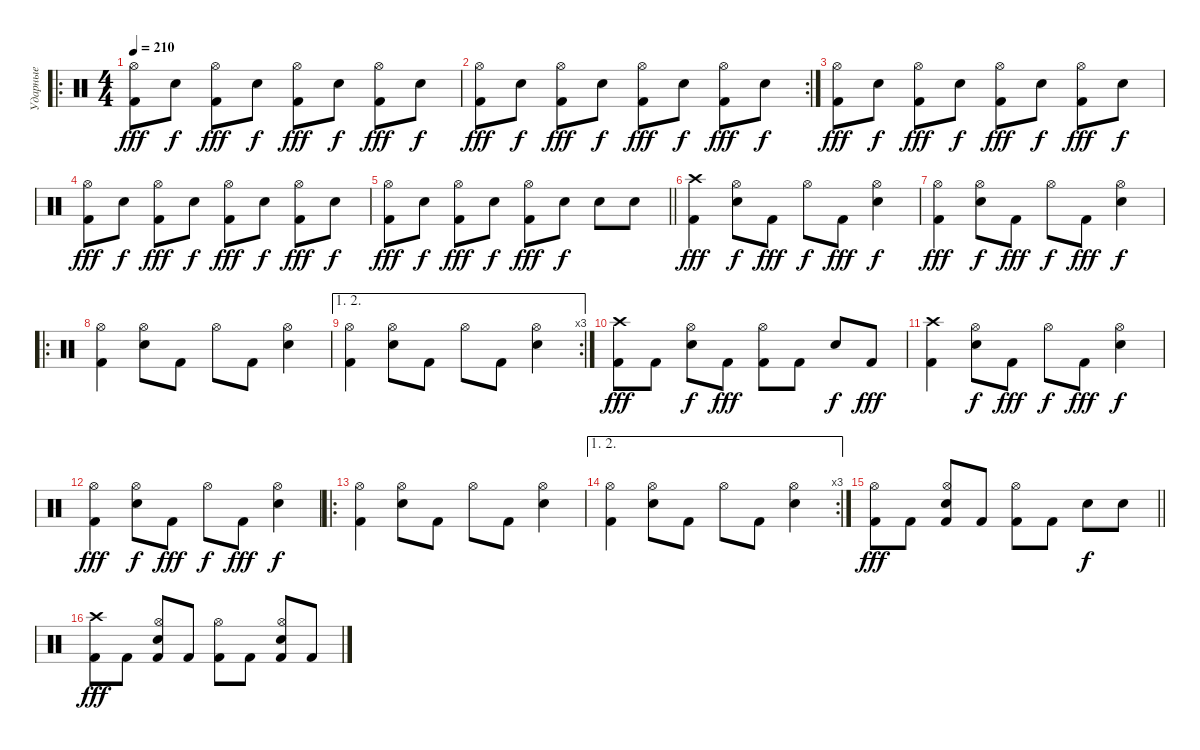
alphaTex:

\track ("Ударные" "Ударные") {instrument percussion}
\staff {score}
\articulation defaults
\ro
\ts (4 4)
\tempo 210
\clef neutral
\ks c
("Kick (hit) 2" "Hi-Hat (open)").8{dy fff} "Snare (hit) 2".8{dy f} ("Kick (hit) 2" "Hi-Hat (open)").8{dy fff} "Snare (hit) 2".8{dy f} ("Kick (hit) 2" "Hi-Hat (open)").8{dy fff} "Snare (hit) 2".8{dy f} ("Kick (hit) 2" "Hi-Hat (open)").8{dy fff} "Snare (hit) 2".8{dy f} |
\rc 2
("Kick (hit) 2" "Hi-Hat (open)").8{dy fff} "Snare (hit) 2".8{dy f} ("Kick (hit) 2" "Hi-Hat (open)").8{dy fff} "Snare (hit) 2".8{dy f} ("Kick (hit) 2" "Hi-Hat (open)").8{dy fff} "Snare (hit) 2".8{dy f} ("Kick (hit) 2" "Hi-Hat (open)").8{dy fff} "Snare (hit) 2".8{dy f} |
("Kick (hit) 2" "Hi-Hat (open)").8{dy fff} "Snare (hit) 2".8{dy f} ("Kick (hit) 2" "Hi-Hat (open)").8{dy fff} "Snare (hit) 2".8{dy f} ("Kick (hit) 2" "Hi-Hat (open)").8{dy fff} "Snare (hit) 2".8{dy f} ("Kick (hit) 2" "Hi-Hat (open)").8{dy fff} "Snare (hit) 2".8{dy f} |
("Kick (hit) 2" "Hi-Hat (open)").8{dy fff} "Snare (hit) 2".8{dy f} ("Kick (hit) 2" "Hi-Hat (open)").8{dy fff} "Snare (hit) 2".8{dy f} ("Kick (hit) 2" "Hi-Hat (open)").8{dy fff} "Snare (hit) 2".8{dy f} ("Kick (hit) 2" "Hi-Hat (open)").8{dy fff} "Snare (hit) 2".8{dy f} |
\barLineRight lightlight
("Kick (hit) 2" "Hi-Hat (open)").8{dy fff} "Snare (hit) 2".8{dy f} ("Kick (hit) 2" "Hi-Hat (open)").8{dy fff} "Snare (hit) 2".8{dy f} ("Kick (hit) 2" "Hi-Hat (open)").8{dy fff} "Snare (hit) 2".8{dy f} "Snare (hit) 2".8 "Snare (hit) 2".8 |
("Kick (hit) 2" "Crash high (hit)").4{dy fff} ("Snare (hit) 2" "Hi-Hat (open)").8{dy f} "Kick (hit) 2".8{dy fff} "Hi-Hat (open)".8{dy f} "Kick (hit) 2".8{dy fff} ("Snare (hit) 2" "Hi-Hat (open)").4{dy f} |
("Kick (hit) 2" "Hi-Hat (open)").4{dy fff} ("Snare (hit) 2" "Hi-Hat (open)").8{dy f} "Kick (hit) 2".8{dy fff} "Hi-Hat (open)".8{dy f} "Kick (hit) 2".8{dy fff} ("Snare (hit) 2" "Hi-Hat (open)").4{dy f} |
\ro
("Kick (hit) 2" "Hi-Hat (open)").4 ("Snare (hit) 2" "Hi-Hat (open)").8 "Kick (hit) 2".8 "Hi-Hat (open)".8 "Kick (hit) 2".8 ("Snare (hit) 2" "Hi-Hat (open)").4 |
\ae (1 2)
\rc 3
("Kick (hit) 2" "Hi-Hat (open)").4 ("Snare (hit) 2" "Hi-Hat (open)").8 "Kick (hit) 2".8 "Hi-Hat (open)".8 "Kick (hit) 2".8 ("Snare (hit) 2" "Hi-Hat (open)").4 |
("Kick (hit) 2" "Crash high (hit)").8{dy fff} "Kick (hit) 2".8 ("Snare (hit) 2" "Hi-Hat (open)").8{dy f} "Kick (hit) 2".8{dy fff} ("Kick (hit) 2" "Hi-Hat (open)").8 "Kick (hit) 2".8 "Snare (hit) 2".8{dy f} "Kick (hit) 2".8{dy fff} |
("Kick (hit) 2" "Crash high (hit)").4 ("Snare (hit) 2" "Hi-Hat (open)").8{dy f} "Kick (hit) 2".8{dy fff} "Hi-Hat (open)".8{dy f} "Kick (hit) 2".8{dy fff} ("Snare (hit) 2" "Hi-Hat (open)").4{dy f} |
("Kick (hit) 2" "Hi-Hat (open)").4{dy fff} ("Snare (hit) 2" "Hi-Hat (open)").8{dy f} "Kick (hit) 2".8{dy fff} "Hi-Hat (open)".8{dy f} "Kick (hit) 2".8{dy fff} ("Snare (hit) 2" "Hi-Hat (open)").4{dy f} |
\ro
("Kick (hit) 2" "Hi-Hat (open)").4 ("Snare (hit) 2" "Hi-Hat (open)").8 "Kick (hit) 2".8 "Hi-Hat (open)".8 "Kick (hit) 2".8 ("Snare (hit) 2" "Hi-Hat (open)").4 |
\ae (1 2)
\rc 3
("Kick (hit) 2" "Hi-Hat (open)").4 ("Snare (hit) 2" "Hi-Hat (open)").8 "Kick (hit) 2".8 "Hi-Hat (open)".8 "Kick (hit) 2".8 ("Snare (hit) 2" "Hi-Hat (open)").4 |
\barLineRight lightlight
("Kick (hit) 2" "Hi-Hat (open)").8{dy fff} "Kick (hit) 2".8 ("Kick (hit) 2" "Snare (hit) 2" "Hi-Hat (open)").8 "Kick (hit) 2".8 ("Kick (hit) 2" "Hi-Hat (open)").8 "Kick (hit) 2".8 "Snare (hit) 2".8{dy f} "Snare (hit) 2".8 |
("Kick (hit) 2" "Crash high (hit)").8{dy fff} "Kick (hit) 2".8 ("Kick (hit) 2" "Snare (hit) 2" "Hi-Hat (open)").8 "Kick (hit) 2".8 ("Kick (hit) 2" "Hi-Hat (open)").8 "Kick (hit) 2".8 ("Kick (hit) 2" "Snare (hit) 2" "Hi-Hat (open)").8 "Kick (hit) 2".8
